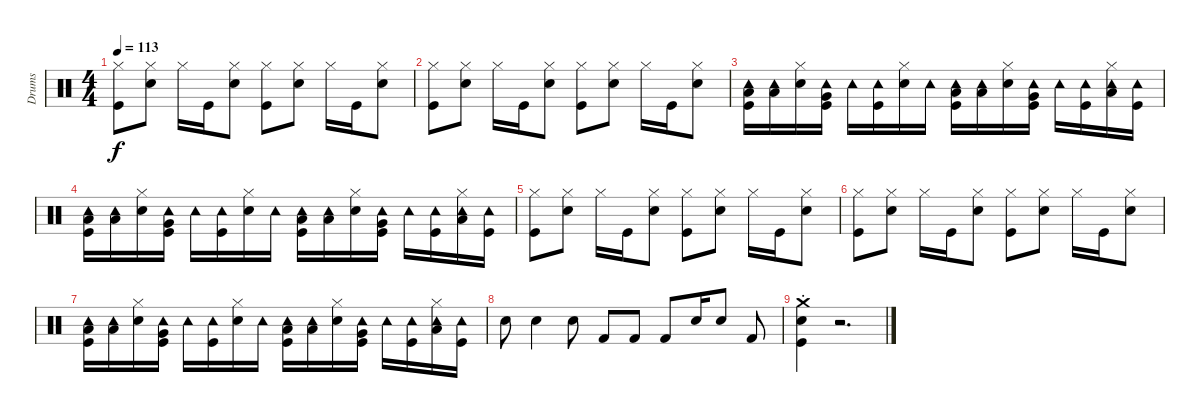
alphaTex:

\track ("Drums" "Drums") {instrument percussion}
\staff {score}
\articulation defaults
\ts (4 4)
\tempo 113
\clef neutral
\ks c
("Hi-Hat (closed)" "Kick (hit)").8{dy f} ("Hi-Hat (closed)" "Snare (hit) 2").8 "Hi-Hat (closed)".16 "Kick (hit)".16 ("Hi-Hat (closed)" "Snare (hit) 2").8 ("Hi-Hat (closed)" "Kick (hit)").8 ("Hi-Hat (closed)" "Snare (hit) 2").8 "Hi-Hat (closed)".16 "Kick (hit)".16 ("Hi-Hat (closed)" "Snare (hit) 2").8 |
("Hi-Hat (closed)" "Kick (hit)").8 ("Hi-Hat (closed)" "Snare (hit) 2").8 "Hi-Hat (closed)".16 "Kick (hit)".16 ("Hi-Hat (closed)" "Snare (hit) 2").8 ("Hi-Hat (closed)" "Kick (hit)").8 ("Hi-Hat (closed)" "Snare (hit) 2").8 "Hi-Hat (closed)".16 "Kick (hit)".16 ("Hi-Hat (closed)" "Snare (hit) 2").8 |
("Tambourine (hit)" "Low Tom (hit)" "Kick (hit)").16 ("Tambourine (hit)" "Low Floor Tom (hit)").16 ("Hi-Hat (closed)" "Snare (hit) 2").16 ("Tambourine (hit)" "Very Low Tom (hit)" "Kick (hit)").16 "Tambourine (hit)".16 ("Tambourine (hit)" "Kick (hit)").16 ("Hi-Hat (closed)" "Snare (hit) 2").16 "Tambourine (hit)".16 ("Tambourine (hit)" "Low Tom (hit)" "Kick (hit)").16 ("Tambourine (hit)" "Low Floor Tom (hit)").16 ("Hi-Hat (closed)" "Snare (hit) 2").16 ("Tambourine (hit)" "Very Low Tom (hit)" "Kick (hit)").16 "Tambourine (hit)".16 ("Tambourine (hit)" "Kick (hit)").16 ("Hi-Hat (closed)" "Tambourine (hit)" "Low Tom (hit)").16 ("Tambourine (hit)" "Kick (hit)").16 |
("Tambourine (hit)" "Low Tom (hit)" "Kick (hit)").16 ("Tambourine (hit)" "Low Floor Tom (hit)").16 ("Hi-Hat (closed)" "Snare (hit) 2").16 ("Tambourine (hit)" "Very Low Tom (hit)" "Kick (hit)").16 "Tambourine (hit)".16 ("Tambourine (hit)" "Kick (hit)").16 ("Hi-Hat (closed)" "Snare (hit) 2").16 "Tambourine (hit)".16 ("Tambourine (hit)" "Low Tom (hit)" "Kick (hit)").16 ("Tambourine (hit)" "Low Floor Tom (hit)").16 ("Hi-Hat (closed)" "Snare (hit) 2").16 ("Tambourine (hit)" "Very Low Tom (hit)" "Kick (hit)").16 "Tambourine (hit)".16 ("Tambourine (hit)" "Kick (hit)").16 ("Hi-Hat (closed)" "Tambourine (hit)" "Low Tom (hit)").16 ("Tambourine (hit)" "Kick (hit)").16 |
("Hi-Hat (closed)" "Kick (hit)").8 ("Hi-Hat (closed)" "Snare (hit) 2").8 "Hi-Hat (closed)".16 "Kick (hit)".16 ("Hi-Hat (closed)" "Snare (hit) 2").8 ("Hi-Hat (closed)" "Kick (hit)").8 ("Hi-Hat (closed)" "Snare (hit) 2").8 "Hi-Hat (closed)".16 "Kick (hit)".16 ("Hi-Hat (closed)" "Snare (hit) 2").8 |
("Hi-Hat (closed)" "Kick (hit)").8 ("Hi-Hat (closed)" "Snare (hit) 2").8 "Hi-Hat (closed)".16 "Kick (hit)".16 ("Hi-Hat (closed)" "Snare (hit) 2").8 ("Hi-Hat (closed)" "Kick (hit)").8 ("Hi-Hat (closed)" "Snare (hit) 2").8 "Hi-Hat (closed)".16 "Kick (hit)".16 ("Hi-Hat (closed)" "Snare (hit) 2").8 |
("Tambourine (hit)" "Low Tom (hit)" "Kick (hit)").16 ("Tambourine (hit)" "Low Floor Tom (hit)").16 ("Hi-Hat (closed)" "Snare (hit) 2").16 ("Tambourine (hit)" "Very Low Tom (hit)" "Kick (hit)").16 "Tambourine (hit)".16 ("Tambourine (hit)" "Kick (hit)").16 ("Hi-Hat (closed)" "Snare (hit) 2").16 "Tambourine (hit)".16 ("Tambourine (hit)" "Low Tom (hit)" "Kick (hit)").16 ("Tambourine (hit)" "Low Floor Tom (hit)").16 ("Hi-Hat (closed)" "Snare (hit) 2").16 ("Tambourine (hit)" "Very Low Tom (hit)" "Kick (hit)").16 "Tambourine (hit)".16 ("Tambourine (hit)" "Kick (hit)").16 ("Hi-Hat (closed)" "Tambourine (hit)" "Low Tom (hit)").16 ("Tambourine (hit)" "Kick (hit)").16 |
"Snare (hit) 2".8 "Snare (hit) 2".4 "Snare (hit) 2".8 "Kick (hit) 2".8 "Kick (hit) 2".8 "Kick (hit) 2".8 "Snare (hit) 2".16 "Snare (hit) 2".8 "Kick (hit) 2".8 |
("Crash medium (choke)" "Snare (hit) 2" "Kick (hit)").4 r.2{d}
